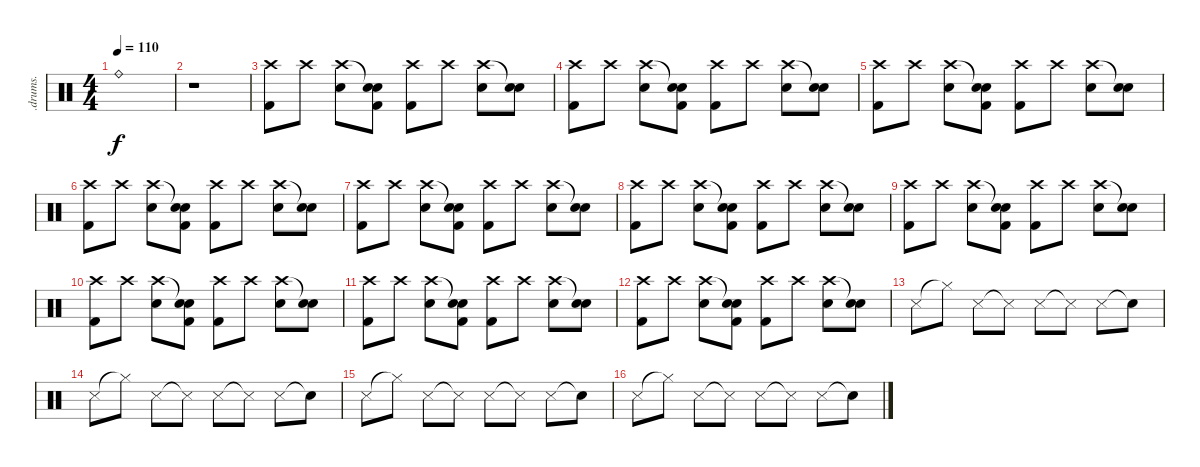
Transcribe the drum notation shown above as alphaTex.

\track (".drums." ".drums.") {instrument percussion}
\staff {score}
\articulation defaults
\ts (4 4)
\tempo 110
\clef neutral
\ks c "Ride (bell)".1{dy f}
|
r.1 |
("Crash high (hit)" "Kick (hit) 2").8 "Crash high (hit)".8 ("Crash high (hit)" "Snare (hit) 2").8 ("Snare (hit)"{t} "Snare (hit) 2" "Kick (hit) 2").8 ("Crash high (hit)" "Kick (hit) 2").8 "Crash high (hit)".8 ("Crash high (hit)" "Snare (hit) 2").8 ("Snare (hit)"{t} "Snare (hit) 2").8 |
("Crash high (hit)" "Kick (hit) 2").8 "Crash high (hit)".8 ("Crash high (hit)" "Snare (hit) 2").8 ("Snare (hit)"{t} "Snare (hit) 2" "Kick (hit) 2").8 ("Crash high (hit)" "Kick (hit) 2").8 "Crash high (hit)".8 ("Crash high (hit)" "Snare (hit) 2").8 ("Snare (hit)"{t} "Snare (hit) 2").8 |
("Crash high (hit)" "Kick (hit) 2").8 "Crash high (hit)".8 ("Crash high (hit)" "Snare (hit) 2").8 ("Snare (hit)"{t} "Snare (hit) 2" "Kick (hit) 2").8 ("Crash high (hit)" "Kick (hit) 2").8 "Crash high (hit)".8 ("Crash high (hit)" "Snare (hit) 2").8 ("Snare (hit)"{t} "Snare (hit) 2").8 |
("Crash high (hit)" "Kick (hit) 2").8 "Crash high (hit)".8 ("Crash high (hit)" "Snare (hit) 2").8 ("Snare (hit)"{t} "Snare (hit) 2" "Kick (hit) 2").8 ("Crash high (hit)" "Kick (hit) 2").8 "Crash high (hit)".8 ("Crash high (hit)" "Snare (hit) 2").8 ("Snare (hit)"{t} "Snare (hit) 2").8 |
("Crash high (hit)" "Kick (hit) 2").8 "Crash high (hit)".8 ("Crash high (hit)" "Snare (hit) 2").8 ("Snare (hit)"{t} "Snare (hit) 2" "Kick (hit) 2").8 ("Crash high (hit)" "Kick (hit) 2").8 "Crash high (hit)".8 ("Crash high (hit)" "Snare (hit) 2").8 ("Snare (hit)"{t} "Snare (hit) 2").8 |
("Crash high (hit)" "Kick (hit) 2").8 "Crash high (hit)".8 ("Crash high (hit)" "Snare (hit) 2").8 ("Snare (hit)"{t} "Snare (hit) 2" "Kick (hit) 2").8 ("Crash high (hit)" "Kick (hit) 2").8 "Crash high (hit)".8 ("Crash high (hit)" "Snare (hit) 2").8 ("Snare (hit)"{t} "Snare (hit) 2").8 |
("Crash high (hit)" "Kick (hit) 2").8 "Crash high (hit)".8 ("Crash high (hit)" "Snare (hit) 2").8 ("Snare (hit)"{t} "Snare (hit) 2" "Kick (hit) 2").8 ("Crash high (hit)" "Kick (hit) 2").8 "Crash high (hit)".8 ("Crash high (hit)" "Snare (hit) 2").8 ("Snare (hit)"{t} "Snare (hit) 2").8 |
("Crash high (hit)" "Kick (hit) 2").8 "Crash high (hit)".8 ("Crash high (hit)" "Snare (hit) 2").8 ("Snare (hit)"{t} "Snare (hit) 2" "Kick (hit) 2").8 ("Crash high (hit)" "Kick (hit) 2").8 "Crash high (hit)".8 ("Crash high (hit)" "Snare (hit) 2").8 ("Snare (hit)"{t} "Snare (hit) 2").8 |
("Crash high (hit)" "Kick (hit) 2").8 "Crash high (hit)".8 ("Crash high (hit)" "Snare (hit) 2").8 ("Snare (hit)"{t} "Snare (hit) 2" "Kick (hit) 2").8 ("Crash high (hit)" "Kick (hit) 2").8 "Crash high (hit)".8 ("Crash high (hit)" "Snare (hit) 2").8 ("Snare (hit)"{t} "Snare (hit) 2").8 |
("Crash high (hit)" "Kick (hit) 2").8 "Crash high (hit)".8 ("Crash high (hit)" "Snare (hit) 2").8 ("Snare (hit)"{t} "Snare (hit) 2" "Kick (hit) 2").8 ("Crash high (hit)" "Kick (hit) 2").8 "Crash high (hit)".8 ("Crash high (hit)" "Snare (hit) 2").8 ("Snare (hit)"{t} "Snare (hit) 2").8 |
"Snare (side stick) 3".8 "Hi-Hat (closed)"{t}.8 "Snare (side stick) 3".8 "Snare (side stick) 3"{t}.8 "Snare (side stick) 3".8 "Snare (side stick) 3"{t}.8 "Snare (side stick) 3".8 "Snare (hit)"{t}.8 |
"Snare (side stick) 3".8 "Hi-Hat (closed)"{t}.8 "Snare (side stick) 3".8 "Snare (side stick) 3"{t}.8 "Snare (side stick) 3".8 "Snare (side stick) 3"{t}.8 "Snare (side stick) 3".8 "Snare (hit)"{t}.8 |
"Snare (side stick) 3".8 "Hi-Hat (closed)"{t}.8 "Snare (side stick) 3".8 "Snare (side stick) 3"{t}.8 "Snare (side stick) 3".8 "Snare (side stick) 3"{t}.8 "Snare (side stick) 3".8 "Snare (hit)"{t}.8 |
"Snare (side stick) 3".8 "Hi-Hat (closed)"{t}.8 "Snare (side stick) 3".8 "Snare (side stick) 3"{t}.8 "Snare (side stick) 3".8 "Snare (side stick) 3"{t}.8 "Snare (side stick) 3".8 "Snare (hit)"{t}.8
